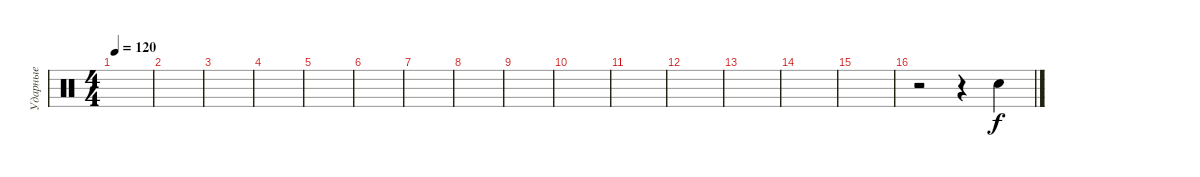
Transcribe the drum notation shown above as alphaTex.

\track ("Ударные" "Ударные") {instrument percussion}
\staff {score}
\articulation defaults
\ts (4 4)
\tempo 120
\clef neutral
\ks c
|
|
|
|
|
|
|
|
|
|
|
|
|
|
|
r.2 r.4 "Electric Snare (hit)".4
